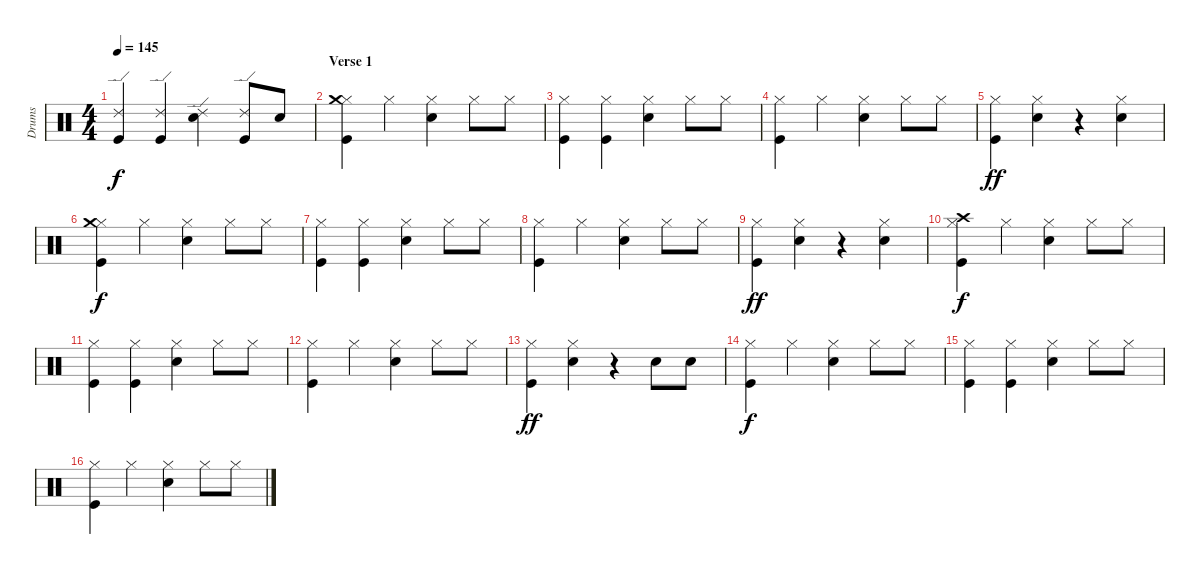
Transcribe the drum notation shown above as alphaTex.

\track ("Drums" "Drums") {instrument percussion}
\staff {score}
\articulation defaults
\ts (4 4)
\tempo 145
\clef neutral
\ks c
("Ride (edge) 2" "Kick (hit)").4{dy f} ("Ride (edge) 2" "Kick (hit)").4 ("Ride (edge) 2" "Electric Snare (hit)").4 ("Ride (edge) 2" "Kick (hit)").8 "Electric Snare (hit)".8 |
\section ("" "Verse 1")
("Hi-Hat (closed)" "Crash medium (hit)" "Kick (hit)").4 "Hi-Hat (closed)".4 ("Hi-Hat (closed)" "Electric Snare (hit)").4 "Hi-Hat (closed)".8 "Hi-Hat (closed)".8 |
("Hi-Hat (closed)" "Kick (hit)").4 ("Hi-Hat (closed)" "Kick (hit)").4 ("Hi-Hat (closed)" "Electric Snare (hit)").4 "Hi-Hat (closed)".8 "Hi-Hat (closed)".8 |
("Hi-Hat (closed)" "Kick (hit)").4 "Hi-Hat (closed)".4 ("Hi-Hat (closed)" "Electric Snare (hit)").4 "Hi-Hat (closed)".8 "Hi-Hat (closed)".8 |
("Hi-Hat (closed)" "Kick (hit)").4{dy ff} ("Hi-Hat (closed)" "Electric Snare (hit)").4 r.4 ("Hi-Hat (closed)" "Electric Snare (hit)").4 |
("Hi-Hat (closed)" "Crash medium (hit)" "Kick (hit)").4{dy f} "Hi-Hat (closed)".4 ("Hi-Hat (closed)" "Electric Snare (hit)").4 "Hi-Hat (closed)".8 "Hi-Hat (closed)".8 |
("Hi-Hat (closed)" "Kick (hit)").4 ("Hi-Hat (closed)" "Kick (hit)").4 ("Hi-Hat (closed)" "Electric Snare (hit)").4 "Hi-Hat (closed)".8 "Hi-Hat (closed)".8 |
("Hi-Hat (closed)" "Kick (hit)").4 "Hi-Hat (closed)".4 ("Hi-Hat (closed)" "Electric Snare (hit)").4 "Hi-Hat (closed)".8 "Hi-Hat (closed)".8 |
("Hi-Hat (closed)" "Kick (hit)").4{dy ff} ("Hi-Hat (closed)" "Electric Snare (hit)").4 r.4 ("Hi-Hat (closed)" "Electric Snare (hit)").4 |
("Hi-Hat (closed)" "Crash high (hit)" "Kick (hit)").4{dy f} "Hi-Hat (closed)".4 ("Hi-Hat (closed)" "Electric Snare (hit)").4 "Hi-Hat (closed)".8 "Hi-Hat (closed)".8 |
("Hi-Hat (closed)" "Kick (hit)").4 ("Hi-Hat (closed)" "Kick (hit)").4 ("Hi-Hat (closed)" "Electric Snare (hit)").4 "Hi-Hat (closed)".8 "Hi-Hat (closed)".8 |
("Hi-Hat (closed)" "Kick (hit)").4 "Hi-Hat (closed)".4 ("Hi-Hat (closed)" "Electric Snare (hit)").4 "Hi-Hat (closed)".8 "Hi-Hat (closed)".8 |
("Hi-Hat (closed)" "Kick (hit)").4{dy ff} ("Hi-Hat (closed)" "Electric Snare (hit)").4 r.4 "Electric Snare (hit)".8 "Electric Snare (hit)".8 |
("Hi-Hat (closed)" "Kick (hit)").4{dy f} "Hi-Hat (closed)".4 ("Hi-Hat (closed)" "Electric Snare (hit)").4 "Hi-Hat (closed)".8 "Hi-Hat (closed)".8 |
("Hi-Hat (closed)" "Kick (hit)").4 ("Hi-Hat (closed)" "Kick (hit)").4 ("Hi-Hat (closed)" "Electric Snare (hit)").4 "Hi-Hat (closed)".8 "Hi-Hat (closed)".8 |
("Hi-Hat (closed)" "Kick (hit)").4 "Hi-Hat (closed)".4 ("Hi-Hat (closed)" "Electric Snare (hit)").4 "Hi-Hat (closed)".8 "Hi-Hat (closed)".8
